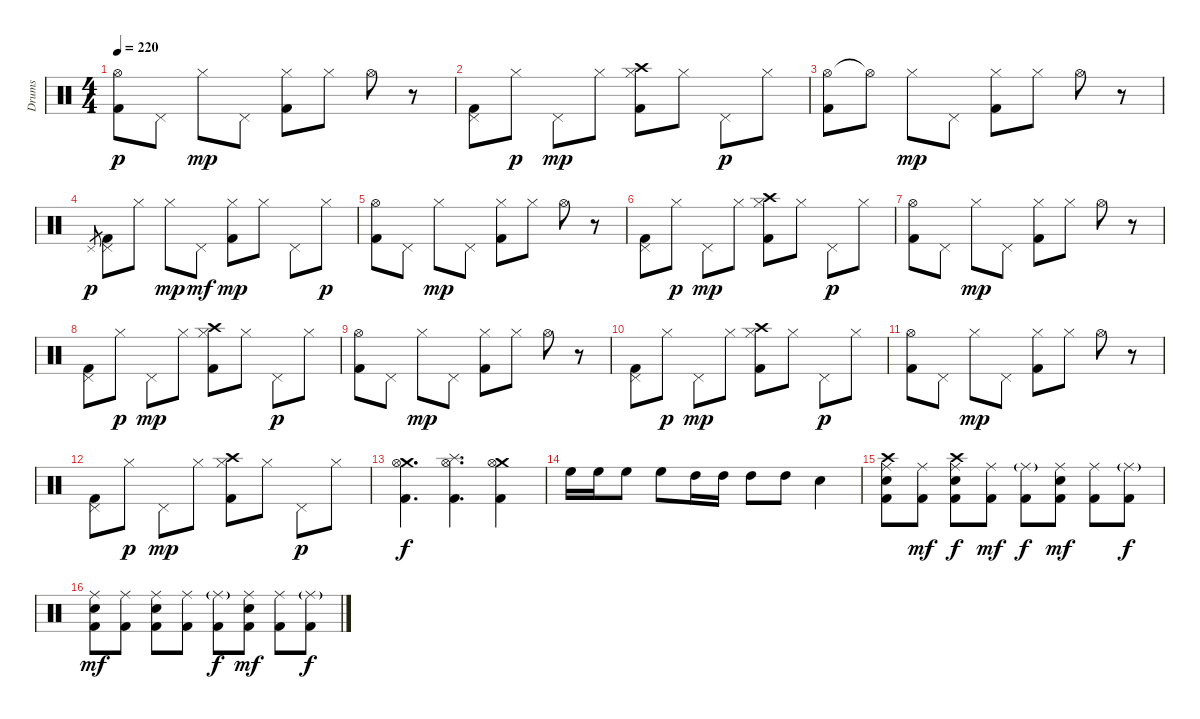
\bracketExtendMode groupsimilarinstruments
\otherSystemsTrackNameOrientation horizontal
\track ("Drumkit" "Drums") {instrument percussion}
\staff {score}
\articulation defaults
\ts (4 4)
\tempo 220
\clef neutral
\ks c
("Hi-Hat (open)" "Kick (hit) 2").8{dy p beam Down} "Pedal Hi-Hat (hit)".8{beam Down} "Hi-Hat (closed)".8{dy mp beam Down} "Pedal Hi-Hat (hit)".8{beam Down} ("Hi-Hat (closed)" "Kick (hit) 2").8{beam Down} "Hi-Hat (closed)".8{beam Down} "Hi-Hat (open)".8{beam Down} r.8{beam Down} |
("Pedal Hi-Hat (hit)" "Kick (hit) 2").8{beam Down} "Hi-Hat (closed)".8{dy p beam Down} "Pedal Hi-Hat (hit)".8{dy mp beam Down} "Hi-Hat (closed)".8{beam Down} ("Crash high (hit)" "Hi-Hat (closed)" "Kick (hit) 2").8{beam Down} "Hi-Hat (closed)".8{beam Down} "Pedal Hi-Hat (hit)".8{dy p beam Down} "Hi-Hat (closed)".8{beam Down} |
("Hi-Hat (open)" "Kick (hit) 2").8{beam Down} "Hi-Hat (open)"{t}.8{beam Down} "Hi-Hat (closed)".8{dy mp beam Down} "Pedal Hi-Hat (hit)".8{beam Down} ("Hi-Hat (closed)" "Kick (hit) 2").8{beam Down} "Hi-Hat (closed)".8{beam Down} "Hi-Hat (open)".8{beam Down} r.8{beam Down} |
"Pedal Hi-Hat (hit)".8{gr dy p beam Up} ("Pedal Hi-Hat (hit)" "Kick (hit) 2").8{beam Down} "Hi-Hat (closed)".8{beam Down} "Hi-Hat (closed)".8{dy mp beam Down} "Pedal Hi-Hat (hit)".8{dy mf beam Down} ("Hi-Hat (closed)" "Kick (hit) 2").8{dy mp beam Down} "Hi-Hat (closed)".8{beam Down} "Pedal Hi-Hat (hit)".8{beam Down} "Hi-Hat (closed)".8{dy p beam Down} |
("Hi-Hat (open)" "Kick (hit) 2").8{beam Down} "Pedal Hi-Hat (hit)".8{beam Down} "Hi-Hat (closed)".8{dy mp beam Down} "Pedal Hi-Hat (hit)".8{beam Down} ("Hi-Hat (closed)" "Kick (hit) 2").8{beam Down} "Hi-Hat (closed)".8{beam Down} "Hi-Hat (open)".8{beam Down} r.8{beam Down} |
("Pedal Hi-Hat (hit)" "Kick (hit) 2").8{beam Down} "Hi-Hat (closed)".8{dy p beam Down} "Pedal Hi-Hat (hit)".8{dy mp beam Down} "Hi-Hat (closed)".8{beam Down} ("Crash high (hit)" "Hi-Hat (closed)" "Kick (hit) 2").8{beam Down} "Hi-Hat (closed)".8{beam Down} "Pedal Hi-Hat (hit)".8{dy p beam Down} "Hi-Hat (closed)".8{beam Down} |
("Hi-Hat (open)" "Kick (hit) 2").8{beam Down} "Pedal Hi-Hat (hit)".8{beam Down} "Hi-Hat (closed)".8{dy mp beam Down} "Pedal Hi-Hat (hit)".8{beam Down} ("Hi-Hat (closed)" "Kick (hit) 2").8{beam Down} "Hi-Hat (closed)".8{beam Down} "Hi-Hat (open)".8{beam Down} r.8{beam Down} |
("Pedal Hi-Hat (hit)" "Kick (hit) 2").8{beam Down} "Hi-Hat (closed)".8{dy p beam Down} "Pedal Hi-Hat (hit)".8{dy mp beam Down} "Hi-Hat (closed)".8{beam Down} ("Crash high (hit)" "Hi-Hat (closed)" "Kick (hit) 2").8{beam Down} "Hi-Hat (closed)".8{beam Down} "Pedal Hi-Hat (hit)".8{dy p beam Down} "Hi-Hat (closed)".8{beam Down} |
("Hi-Hat (open)" "Kick (hit) 2").8{beam Down} "Pedal Hi-Hat (hit)".8{beam Down} "Hi-Hat (closed)".8{dy mp beam Down} "Pedal Hi-Hat (hit)".8{beam Down} ("Hi-Hat (closed)" "Kick (hit) 2").8{beam Down} "Hi-Hat (closed)".8{beam Down} "Hi-Hat (open)".8{beam Down} r.8{beam Down} |
("Pedal Hi-Hat (hit)" "Kick (hit) 2").8{beam Down} "Hi-Hat (closed)".8{dy p beam Down} "Pedal Hi-Hat (hit)".8{dy mp beam Down} "Hi-Hat (closed)".8{beam Down} ("Crash high (hit)" "Hi-Hat (closed)" "Kick (hit) 2").8{beam Down} "Hi-Hat (closed)".8{beam Down} "Pedal Hi-Hat (hit)".8{dy p beam Down} "Hi-Hat (closed)".8{beam Down} |
("Hi-Hat (open)" "Kick (hit) 2").8{beam Down} "Pedal Hi-Hat (hit)".8{beam Down} "Hi-Hat (closed)".8{dy mp beam Down} "Pedal Hi-Hat (hit)".8{beam Down} ("Hi-Hat (closed)" "Kick (hit) 2").8{beam Down} "Hi-Hat (closed)".8{beam Down} "Hi-Hat (open)".8{beam Down} r.8{beam Down} |
("Pedal Hi-Hat (hit)" "Kick (hit) 2").8{beam Down} "Hi-Hat (closed)".8{dy p beam Down} "Pedal Hi-Hat (hit)".8{dy mp beam Down} "Hi-Hat (closed)".8{beam Down} ("Crash high (hit)" "Hi-Hat (closed)" "Kick (hit) 2").8{beam Down} "Hi-Hat (closed)".8{beam Down} "Pedal Hi-Hat (hit)".8{dy p beam Down} "Hi-Hat (closed)".8{beam Down} |
("Crash medium (hit)" "Hi-Hat (open)" "Kick (hit) 2").4{d dy f beam Down} ("Splash (hit)" "Hi-Hat (open)" "Kick (hit) 2").4{d beam Down} ("Crash medium (hit)" "Hi-Hat (open)" "Kick (hit) 2").4{beam Down} |
"High Floor Tom (hit)".16{beam Down} "High Floor Tom (hit)".16{beam Down} "High Floor Tom (hit)".8{beam Down} "High Floor Tom (hit)".8{beam Down} "High Tom (hit)".16{beam Down} "High Tom (hit)".16{beam Down} "High Tom (hit)".8{beam Down} "High Tom (hit)".8{beam Down} "Snare (hit) 2".4{beam Down} |
("Crash high (hit)" "Ride (middle)" "Snare (hit) 2" "Kick (hit) 2").8{beam Down} ("Ride (middle)" "Kick (hit) 2").8{dy mf beam Down} ("Crash high (hit)" "Ride (middle)" "Snare (hit) 2" "Kick (hit) 2").8{dy f beam Down} ("Ride (middle)" "Kick (hit) 2").8{dy mf beam Down} ("Ride (middle)"{g} "Kick (hit) 2").8{dy f beam Down} ("Ride (middle)" "Snare (hit) 2" "Kick (hit) 2").8{dy mf beam Down} ("Ride (middle)" "Kick (hit) 2").8{beam Down} ("Ride (middle)"{g} "Kick (hit) 2").8{dy f beam Down} |
("Ride (middle)" "Snare (hit) 2" "Kick (hit) 2").8{dy mf beam Down} ("Ride (middle)" "Kick (hit) 2").8{beam Down} ("Ride (middle)" "Snare (hit) 2" "Kick (hit) 2").8{beam Down} ("Ride (middle)" "Kick (hit) 2").8{beam Down} ("Ride (middle)"{g} "Kick (hit) 2").8{dy f beam Down} ("Ride (middle)" "Snare (hit) 2" "Kick (hit) 2").8{dy mf beam Down} ("Ride (middle)" "Kick (hit) 2").8{beam Down} ("Ride (middle)"{g} "Kick (hit) 2").8{dy f beam Down}
